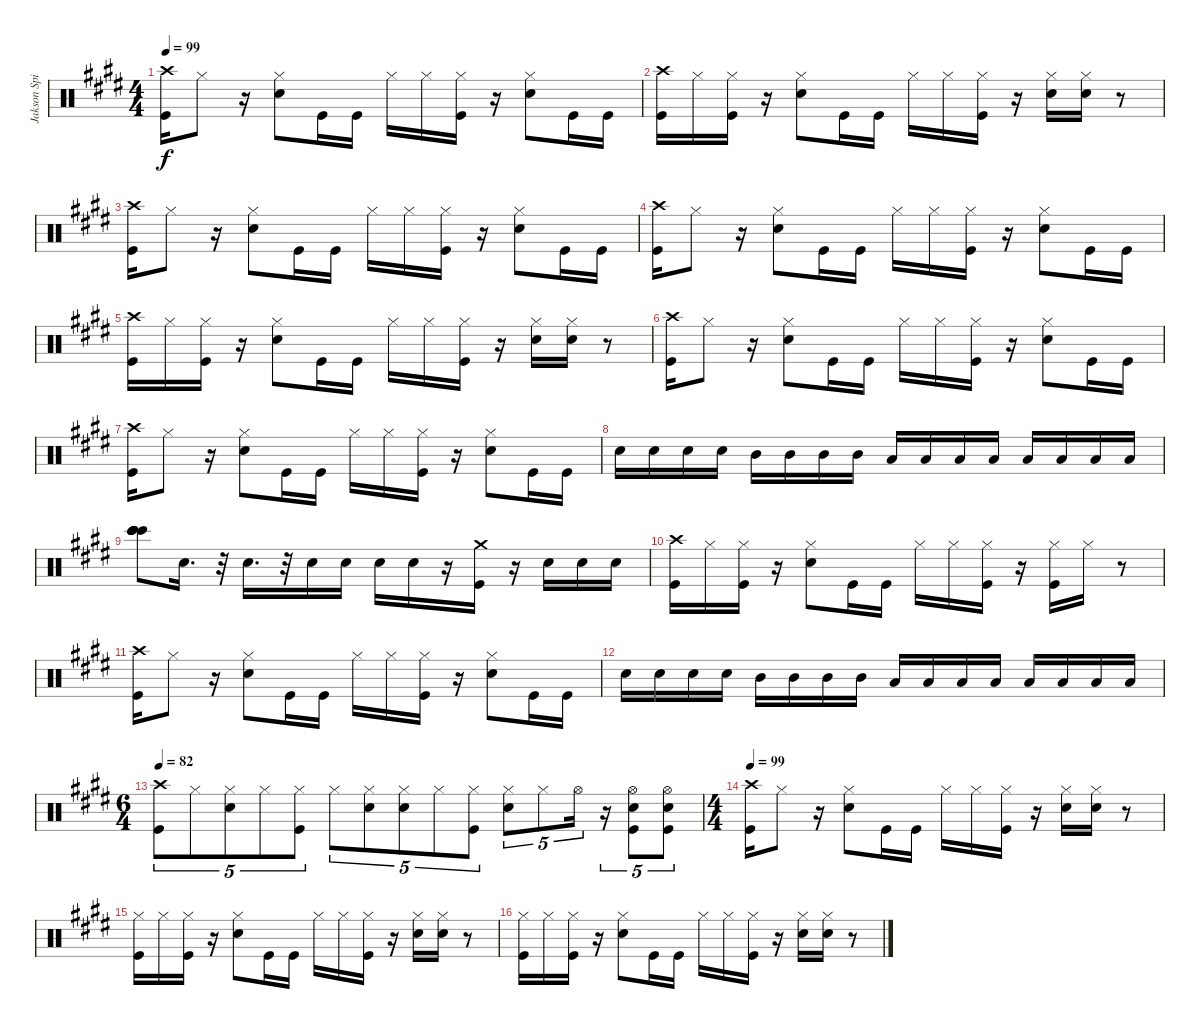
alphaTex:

\track ("Jakson Spires Drums" "Jakson Spi") {instrument percussion}
\staff {score}
\articulation defaults
\ts (4 4)
\tempo 99
\clef neutral
\ks e
("Crash high (hit)" "Kick (hit)").16{dy f} "Hi-Hat (closed)".8 r.16 ("Hi-Hat (closed)" "Snare (hit) 2").8 "Kick (hit)".16 "Kick (hit)".16 "Hi-Hat (closed)".16 "Hi-Hat (closed)".16 ("Hi-Hat (closed)" "Kick (hit)").16 r.16 ("Hi-Hat (closed)" "Snare (hit) 2").8 "Kick (hit)".16 "Kick (hit)".16 |
("Crash high (hit)" "Kick (hit)").16 "Hi-Hat (closed)".16 ("Hi-Hat (closed)" "Kick (hit)").16 r.16 ("Hi-Hat (closed)" "Snare (hit) 2").8 "Kick (hit)".16 "Kick (hit)".16 "Hi-Hat (closed)".16 "Hi-Hat (closed)".16 ("Hi-Hat (closed)" "Kick (hit)").16 r.16 ("Hi-Hat (closed)" "Snare (hit) 2").16 ("Hi-Hat (closed)" "Snare (hit) 2").16 r.8 |
("Crash high (hit)" "Kick (hit)").16 "Hi-Hat (closed)".8 r.16 ("Hi-Hat (closed)" "Snare (hit) 2").8 "Kick (hit)".16 "Kick (hit)".16 "Hi-Hat (closed)".16 "Hi-Hat (closed)".16 ("Hi-Hat (closed)" "Kick (hit)").16 r.16 ("Hi-Hat (closed)" "Snare (hit) 2").8 "Kick (hit)".16 "Kick (hit)".16 |
("Crash high (hit)" "Kick (hit)").16 "Hi-Hat (closed)".8 r.16 ("Hi-Hat (closed)" "Snare (hit) 2").8 "Kick (hit)".16 "Kick (hit)".16 "Hi-Hat (closed)".16 "Hi-Hat (closed)".16 ("Hi-Hat (closed)" "Kick (hit)").16 r.16 ("Hi-Hat (closed)" "Snare (hit) 2").8 "Kick (hit)".16 "Kick (hit)".16 |
("Crash high (hit)" "Kick (hit)").16 "Hi-Hat (closed)".16 ("Hi-Hat (closed)" "Kick (hit)").16 r.16 ("Hi-Hat (closed)" "Snare (hit) 2").8 "Kick (hit)".16 "Kick (hit)".16 "Hi-Hat (closed)".16 "Hi-Hat (closed)".16 ("Hi-Hat (closed)" "Kick (hit)").16 r.16 ("Hi-Hat (closed)" "Snare (hit) 2").16 ("Hi-Hat (closed)" "Snare (hit) 2").16 r.8 |
("Crash high (hit)" "Kick (hit)").16 "Hi-Hat (closed)".8 r.16 ("Hi-Hat (closed)" "Snare (hit) 2").8 "Kick (hit)".16 "Kick (hit)".16 "Hi-Hat (closed)".16 "Hi-Hat (closed)".16 ("Hi-Hat (closed)" "Kick (hit)").16 r.16 ("Hi-Hat (closed)" "Snare (hit) 2").8 "Kick (hit)".16 "Kick (hit)".16 |
("Crash high (hit)" "Kick (hit)").16 "Hi-Hat (closed)".8 r.16 ("Hi-Hat (closed)" "Snare (hit) 2").8 "Kick (hit)".16 "Kick (hit)".16 "Hi-Hat (closed)".16 "Hi-Hat (closed)".16 ("Hi-Hat (closed)" "Kick (hit)").16 r.16 ("Hi-Hat (closed)" "Snare (hit) 2").8 "Kick (hit)".16 "Kick (hit)".16 |
"Snare (hit) 2".16 "Snare (hit) 2".16 "Snare (hit) 2".16 "Snare (hit) 2".16 "Mid Tom (hit)".16 "Mid Tom (hit)".16 "Mid Tom (hit)".16 "Mid Tom (hit)".16 "Low Tom (hit)".16 "Low Tom (hit)".16 "Low Tom (hit)".16 "Low Tom (hit)".16 "Low Floor Tom (hit)".16 "Low Floor Tom (hit)".16 "Low Floor Tom (hit)".16 "Low Floor Tom (hit)".16 |
("Bongo High (hit)" "Bongo High (hit)" "Bongo High (hit)" "Bongo High (hit)" "Bongo High (hit)" "Bongo High (hit)").8{volume 16} "Snare (hit) 2".16{d volume 12} r.32 "Snare (hit) 2".16{d} r.32 "Snare (hit) 2".16 "Snare (hit) 2".16 "Snare (hit) 2".16 "Snare (hit) 2".16 r.16 ("Crash medium (hit)" "Kick (hit)").16 r.16 "Snare (hit) 2".16 "Snare (hit) 2".16 "Snare (hit) 2".16 |
("Crash high (hit)" "Kick (hit)").16 "Hi-Hat (closed)".16 ("Hi-Hat (closed)" "Kick (hit)").16 r.16 ("Hi-Hat (closed)" "Snare (hit) 2").8 "Kick (hit)".16 "Kick (hit)".16 "Hi-Hat (closed)".16 "Hi-Hat (closed)".16 ("Hi-Hat (closed)" "Kick (hit)").16 r.16 ("Hi-Hat (closed)" "Kick (hit)").16 "Hi-Hat (closed)".16 r.8 |
("Crash high (hit)" "Kick (hit)").16 "Hi-Hat (closed)".8 r.16 ("Hi-Hat (closed)" "Snare (hit) 2").8 "Kick (hit)".16 "Kick (hit)".16 "Hi-Hat (closed)".16 "Hi-Hat (closed)".16 ("Hi-Hat (closed)" "Kick (hit)").16 r.16 ("Hi-Hat (closed)" "Snare (hit) 2").8 "Kick (hit)".16 "Kick (hit)".16 |
"Snare (hit) 2".16 "Snare (hit) 2".16 "Snare (hit) 2".16 "Snare (hit) 2".16 "Mid Tom (hit)".16 "Mid Tom (hit)".16 "Mid Tom (hit)".16 "Mid Tom (hit)".16 "Low Tom (hit)".16 "Low Tom (hit)".16 "Low Tom (hit)".16 "Low Tom (hit)".16 "Low Floor Tom (hit)".16 "Low Floor Tom (hit)".16 "Low Floor Tom (hit)".16 "Low Floor Tom (hit)".16 |
\ts (6 4)
\tempo 82
("Crash high (hit)" "Kick (hit)").8{tu (5 4)} "Hi-Hat (closed)".8{tu (5 4)} ("Hi-Hat (closed)" "Snare (hit) 2").8{tu (5 4)} "Hi-Hat (closed)".8{tu (5 4)} ("Hi-Hat (closed)" "Kick (hit)").8{tu (5 4)} "Hi-Hat (closed)".8{tu (5 4)} ("Hi-Hat (closed)" "Snare (hit) 2").8{tu (5 4)} ("Hi-Hat (closed)" "Snare (hit) 2").8{tu (5 4)} "Hi-Hat (closed)".8{tu (5 4)} ("Hi-Hat (closed)" "Kick (hit)").8{tu (5 4)} ("Hi-Hat (closed)" "Snare (hit) 2").8{tu (5 4)} "Hi-Hat (closed)".8{tu (5 4)} "Hi-Hat (open)".16{tu (5 4)} r.16{tu (5 4)} ("Hi-Hat (open)" "Snare (hit) 2" "Kick (hit)").8{tu (5 4)} ("Hi-Hat (open)" "Snare (hit) 2" "Kick (hit)").8{tu (5 4)} |
\ts (4 4)
\tempo 100
\tempo 99
("Crash high (hit)" "Kick (hit)").16 "Hi-Hat (closed)".8 r.16 ("Hi-Hat (closed)" "Snare (hit) 2").8 "Kick (hit)".16 "Kick (hit)".16 "Hi-Hat (closed)".16 "Hi-Hat (closed)".16 ("Hi-Hat (closed)" "Kick (hit)").16 r.16 ("Hi-Hat (closed)" "Snare (hit) 2").16 ("Hi-Hat (closed)" "Snare (hit) 2").16 r.8 |
("Hi-Hat (closed)" "Kick (hit)").16 "Hi-Hat (closed)".16 ("Hi-Hat (closed)" "Kick (hit)").16 r.16 ("Hi-Hat (closed)" "Snare (hit) 2").8 "Kick (hit)".16 "Kick (hit)".16 "Hi-Hat (closed)".16 "Hi-Hat (closed)".16 ("Hi-Hat (closed)" "Kick (hit)").16 r.16 ("Hi-Hat (closed)" "Snare (hit) 2").16 ("Hi-Hat (closed)" "Snare (hit) 2").16 r.8 |
("Hi-Hat (closed)" "Kick (hit)").16 "Hi-Hat (closed)".16 ("Hi-Hat (closed)" "Kick (hit)").16 r.16 ("Hi-Hat (closed)" "Snare (hit) 2").8 "Kick (hit)".16 "Kick (hit)".16 "Hi-Hat (closed)".16 "Hi-Hat (closed)".16 ("Hi-Hat (closed)" "Kick (hit)").16 r.16 ("Hi-Hat (closed)" "Snare (hit) 2").16 ("Hi-Hat (closed)" "Snare (hit) 2").16 r.8
